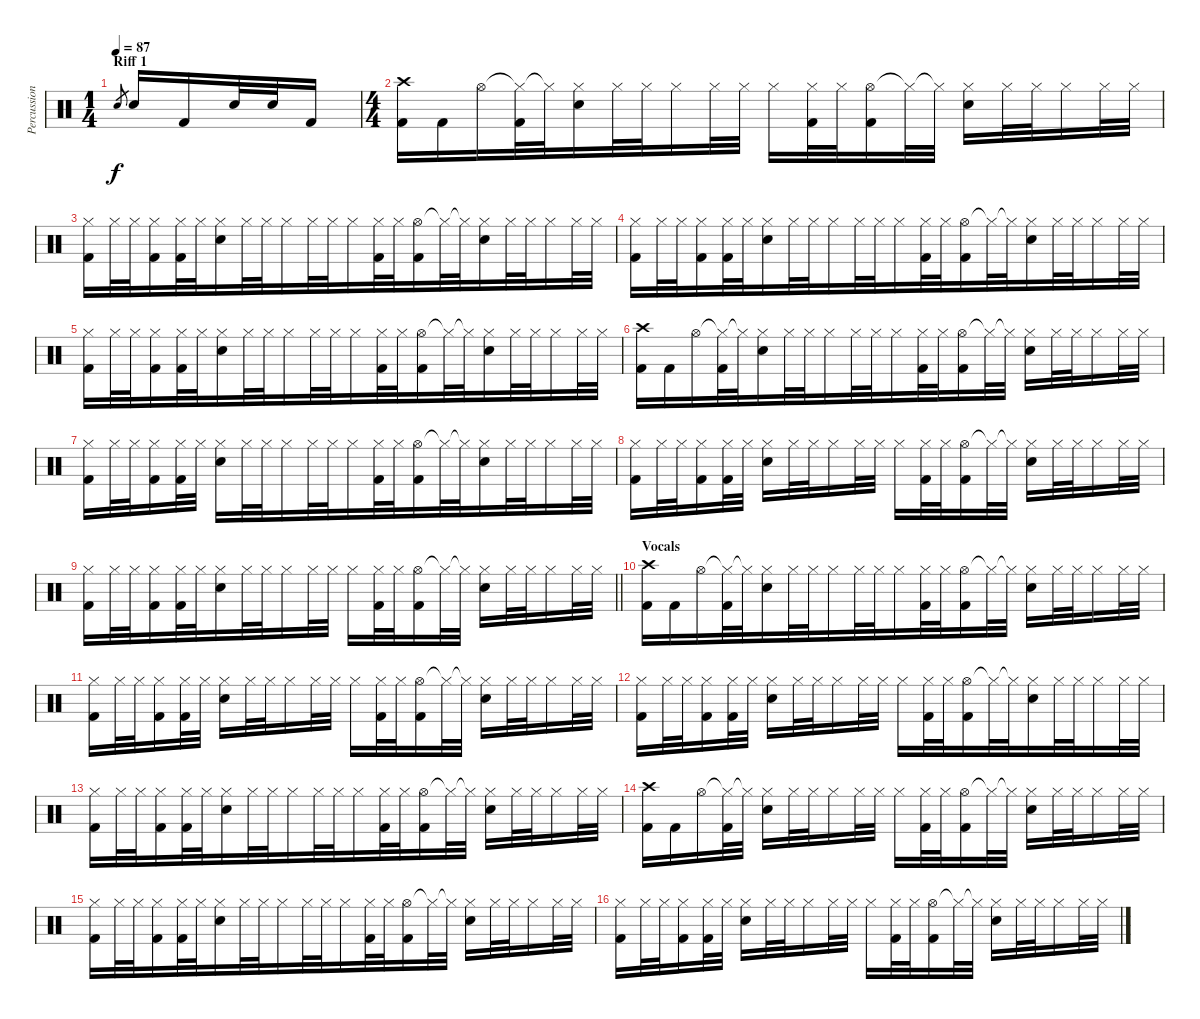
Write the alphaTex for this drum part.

\track ("Percussion" "Percussion") {instrument percussion}
\staff {score}
\articulation defaults
\ts (1 4)
\section ("" "Riff 1")
\tempo 87
\clef neutral
\ks c "Electric Snare (hit)".8{gr dy f beam merge} "Electric Snare (hit)".16 "Kick (hit) 2".16{beam merge} "Electric Snare (hit)".32{beam merge} "Electric Snare (hit)".32{beam merge} "Kick (hit) 2".16
|
\ts (4 4)
("Crash high (hit)" "Kick (hit) 2").16{beam merge} "Kick (hit) 2".16{beam merge} "Hi-Hat (open)".16{beam merge} ("Hi-Hat (closed)"{t} "Kick (hit) 2").32{beam merge} "Hi-Hat (closed)"{t}.32{beam merge} ("Hi-Hat (closed)" "Electric Snare (hit)").16{beam merge} "Hi-Hat (closed)".32{beam merge} "Hi-Hat (closed)".32{beam merge} "Hi-Hat (closed)".16{beam merge} "Hi-Hat (closed)".32{beam merge} "Hi-Hat (closed)".32 "Hi-Hat (closed)".16 ("Hi-Hat (closed)" "Kick (hit) 2").32 "Hi-Hat (closed)".32 ("Hi-Hat (open)" "Kick (hit) 2").16 "Hi-Hat (closed)"{t}.32 "Hi-Hat (closed)"{t}.32 ("Hi-Hat (closed)" "Electric Snare (hit)").16 "Hi-Hat (closed)".32 "Hi-Hat (closed)".32{beam merge} "Hi-Hat (closed)".16 "Hi-Hat (closed)".32 "Hi-Hat (closed)".32 |
("Hi-Hat (closed)" "Kick (hit) 2").16{beam merge} "Hi-Hat (closed)".32 "Hi-Hat (closed)".32{beam merge} ("Hi-Hat (closed)" "Kick (hit) 2").16{beam merge} ("Hi-Hat (closed)" "Kick (hit) 2").32 "Hi-Hat (closed)".32{beam merge} ("Hi-Hat (closed)" "Electric Snare (hit)").16 "Hi-Hat (closed)".32{beam merge} "Hi-Hat (closed)".32 "Hi-Hat (closed)".16{beam merge} "Hi-Hat (closed)".32{beam merge} "Hi-Hat (closed)".32{beam merge} "Hi-Hat (closed)".16{beam merge} ("Hi-Hat (closed)" "Kick (hit) 2").32{beam merge} "Hi-Hat (closed)".32{beam merge} ("Hi-Hat (open)" "Kick (hit) 2").16{beam merge} "Hi-Hat (closed)"{t}.32{beam merge} "Hi-Hat (closed)"{t}.32{beam merge} ("Hi-Hat (closed)" "Electric Snare (hit)").16{beam merge} "Hi-Hat (closed)".32{beam merge} "Hi-Hat (closed)".32{beam merge} "Hi-Hat (closed)".16 "Hi-Hat (closed)".32{beam merge} "Hi-Hat (closed)".32 |
("Hi-Hat (closed)" "Kick (hit) 2").16{beam merge} "Hi-Hat (closed)".32{beam merge} "Hi-Hat (closed)".32{beam merge} ("Hi-Hat (closed)" "Kick (hit) 2").16{beam merge} ("Hi-Hat (closed)" "Kick (hit) 2").32{beam merge} "Hi-Hat (closed)".32{beam merge} ("Hi-Hat (closed)" "Electric Snare (hit)").16{beam merge} "Hi-Hat (closed)".32{beam merge} "Hi-Hat (closed)".32{beam merge} "Hi-Hat (closed)".16{beam merge} "Hi-Hat (closed)".32{beam merge} "Hi-Hat (closed)".32{beam merge} "Hi-Hat (closed)".16{beam merge} ("Hi-Hat (closed)" "Kick (hit) 2").32 "Hi-Hat (closed)".32 ("Hi-Hat (open)" "Kick (hit) 2").16{beam merge} "Hi-Hat (closed)"{t}.32{beam merge} "Hi-Hat (closed)"{t}.32{beam merge} ("Hi-Hat (closed)" "Electric Snare (hit)").16{beam merge} "Hi-Hat (closed)".32{beam merge} "Hi-Hat (closed)".32{beam merge} "Hi-Hat (closed)".16{beam merge} "Hi-Hat (closed)".32{beam merge} "Hi-Hat (closed)".32 |
("Hi-Hat (closed)" "Kick (hit) 2").16{beam merge} "Hi-Hat (closed)".32{beam merge} "Hi-Hat (closed)".32 ("Hi-Hat (closed)" "Kick (hit) 2").16{beam merge} ("Hi-Hat (closed)" "Kick (hit) 2").32{beam merge} "Hi-Hat (closed)".32{beam merge} ("Hi-Hat (closed)" "Electric Snare (hit)").16{beam merge} "Hi-Hat (closed)".32{beam merge} "Hi-Hat (closed)".32 "Hi-Hat (closed)".16{beam merge} "Hi-Hat (closed)".32{beam merge} "Hi-Hat (closed)".32{beam merge} "Hi-Hat (closed)".16{beam merge} ("Hi-Hat (closed)" "Kick (hit) 2").32{beam merge} "Hi-Hat (closed)".32{beam merge} ("Hi-Hat (open)" "Kick (hit) 2").16{beam merge} "Hi-Hat (closed)"{t}.32{beam merge} "Hi-Hat (closed)"{t}.32{beam merge} ("Hi-Hat (closed)" "Electric Snare (hit)").16{beam merge} "Hi-Hat (closed)".32 "Hi-Hat (closed)".32{beam merge} "Hi-Hat (closed)".16{beam merge} "Hi-Hat (closed)".32{beam merge} "Hi-Hat (closed)".32 |
("Crash high (hit)" "Kick (hit) 2").16 "Kick (hit) 2".16{beam merge} "Hi-Hat (open)".16{beam merge} ("Hi-Hat (closed)"{t} "Kick (hit) 2").32 "Hi-Hat (closed)"{t}.32{beam merge} ("Hi-Hat (closed)" "Electric Snare (hit)").16{beam merge} "Hi-Hat (closed)".32{beam merge} "Hi-Hat (closed)".32{beam merge} "Hi-Hat (closed)".16 "Hi-Hat (closed)".32{beam merge} "Hi-Hat (closed)".32{beam merge} "Hi-Hat (closed)".16{beam merge} ("Hi-Hat (closed)" "Kick (hit) 2").32{beam merge} "Hi-Hat (closed)".32{beam merge} ("Hi-Hat (open)" "Kick (hit) 2").16{beam merge} "Hi-Hat (closed)"{t}.32{beam merge} "Hi-Hat (closed)"{t}.32 ("Hi-Hat (closed)" "Electric Snare (hit)").16 "Hi-Hat (closed)".32{beam merge} "Hi-Hat (closed)".32 "Hi-Hat (closed)".16 "Hi-Hat (closed)".32{beam merge} "Hi-Hat (closed)".32 |
("Hi-Hat (closed)" "Kick (hit) 2").16{beam merge} "Hi-Hat (closed)".32{beam merge} "Hi-Hat (closed)".32{beam merge} ("Hi-Hat (closed)" "Kick (hit) 2").16{beam merge} ("Hi-Hat (closed)" "Kick (hit) 2").32{beam merge} "Hi-Hat (closed)".32 ("Hi-Hat (closed)" "Electric Snare (hit)").16{beam merge} "Hi-Hat (closed)".32{beam merge} "Hi-Hat (closed)".32{beam merge} "Hi-Hat (closed)".16{beam merge} "Hi-Hat (closed)".32{beam merge} "Hi-Hat (closed)".32{beam merge} "Hi-Hat (closed)".16{beam merge} ("Hi-Hat (closed)" "Kick (hit) 2").32{beam merge} "Hi-Hat (closed)".32{beam merge} ("Hi-Hat (open)" "Kick (hit) 2").16{beam merge} "Hi-Hat (closed)"{t}.32{beam merge} "Hi-Hat (closed)"{t}.32{beam merge} ("Hi-Hat (closed)" "Electric Snare (hit)").16{beam merge} "Hi-Hat (closed)".32{beam merge} "Hi-Hat (closed)".32{beam merge} "Hi-Hat (closed)".16{beam merge} "Hi-Hat (closed)".32{beam merge} "Hi-Hat (closed)".32 |
("Hi-Hat (closed)" "Kick (hit) 2").16 "Hi-Hat (closed)".32{beam merge} "Hi-Hat (closed)".32{beam merge} ("Hi-Hat (closed)" "Kick (hit) 2").16 ("Hi-Hat (closed)" "Kick (hit) 2").32{beam merge} "Hi-Hat (closed)".32 ("Hi-Hat (closed)" "Electric Snare (hit)").16{beam merge} "Hi-Hat (closed)".32{beam merge} "Hi-Hat (closed)".32 "Hi-Hat (closed)".16{beam merge} "Hi-Hat (closed)".32 "Hi-Hat (closed)".32 "Hi-Hat (closed)".16 ("Hi-Hat (closed)" "Kick (hit) 2").32{beam merge} "Hi-Hat (closed)".32{beam merge} ("Hi-Hat (open)" "Kick (hit) 2").16 "Hi-Hat (closed)"{t}.32 "Hi-Hat (closed)"{t}.32 ("Hi-Hat (closed)" "Electric Snare (hit)").16{beam merge} "Hi-Hat (closed)".32{beam merge} "Hi-Hat (closed)".32 "Hi-Hat (closed)".16 "Hi-Hat (closed)".32 "Hi-Hat (closed)".32 |
\barLineRight lightlight
("Hi-Hat (closed)" "Kick (hit) 2").16 "Hi-Hat (closed)".32{beam merge} "Hi-Hat (closed)".32{beam merge} ("Hi-Hat (closed)" "Kick (hit) 2").16{beam merge} ("Hi-Hat (closed)" "Kick (hit) 2").32 "Hi-Hat (closed)".32{beam merge} ("Hi-Hat (closed)" "Electric Snare (hit)").16 "Hi-Hat (closed)".32 "Hi-Hat (closed)".32{beam merge} "Hi-Hat (closed)".16 "Hi-Hat (closed)".32{beam merge} "Hi-Hat (closed)".32 "Hi-Hat (closed)".16{beam merge} ("Hi-Hat (closed)" "Kick (hit) 2").32{beam merge} "Hi-Hat (closed)".32{beam merge} ("Hi-Hat (open)" "Kick (hit) 2").16{beam merge} "Hi-Hat (closed)"{t}.32 "Hi-Hat (closed)"{t}.32 ("Hi-Hat (closed)" "Electric Snare (hit)").16 "Hi-Hat (closed)".32 "Hi-Hat (closed)".32 "Hi-Hat (closed)".16{beam merge} "Hi-Hat (closed)".32{beam merge} "Hi-Hat (closed)".32 |
\section ("" "Vocals ")
("Crash high (hit)" "Kick (hit) 2").16 "Kick (hit) 2".16 "Hi-Hat (open)".16 ("Hi-Hat (closed)"{t} "Kick (hit) 2").32{beam merge} "Hi-Hat (closed)"{t}.32{beam merge} ("Hi-Hat (closed)" "Electric Snare (hit)").16 "Hi-Hat (closed)".32 "Hi-Hat (closed)".32 "Hi-Hat (closed)".16 "Hi-Hat (closed)".32{beam merge} "Hi-Hat (closed)".32{beam merge} "Hi-Hat (closed)".16 ("Hi-Hat (closed)" "Kick (hit) 2").32{beam merge} "Hi-Hat (closed)".32{beam merge} ("Hi-Hat (open)" "Kick (hit) 2").16{beam merge} "Hi-Hat (closed)"{t}.32{beam merge} "Hi-Hat (closed)"{t}.32 ("Hi-Hat (closed)" "Electric Snare (hit)").16 "Hi-Hat (closed)".32 "Hi-Hat (closed)".32{beam merge} "Hi-Hat (closed)".16{beam merge} "Hi-Hat (closed)".32{beam merge} "Hi-Hat (closed)".32 |
("Hi-Hat (closed)" "Kick (hit) 2").16 "Hi-Hat (closed)".32 "Hi-Hat (closed)".32{beam merge} ("Hi-Hat (closed)" "Kick (hit) 2").16 ("Hi-Hat (closed)" "Kick (hit) 2").32 "Hi-Hat (closed)".32 ("Hi-Hat (closed)" "Electric Snare (hit)").16 "Hi-Hat (closed)".32 "Hi-Hat (closed)".32 "Hi-Hat (closed)".16 "Hi-Hat (closed)".32 "Hi-Hat (closed)".32 "Hi-Hat (closed)".16 ("Hi-Hat (closed)" "Kick (hit) 2").32 "Hi-Hat (closed)".32 ("Hi-Hat (open)" "Kick (hit) 2").16 "Hi-Hat (closed)"{t}.32 "Hi-Hat (closed)"{t}.32 ("Hi-Hat (closed)" "Electric Snare (hit)").16{beam merge} "Hi-Hat (closed)".32 "Hi-Hat (closed)".32 "Hi-Hat (closed)".16 "Hi-Hat (closed)".32 "Hi-Hat (closed)".32 |
("Hi-Hat (closed)" "Kick (hit) 2").16 "Hi-Hat (closed)".32{beam merge} "Hi-Hat (closed)".32 ("Hi-Hat (closed)" "Kick (hit) 2").16 ("Hi-Hat (closed)" "Kick (hit) 2").32 "Hi-Hat (closed)".32 ("Hi-Hat (closed)" "Electric Snare (hit)").16{beam merge} "Hi-Hat (closed)".32 "Hi-Hat (closed)".32 "Hi-Hat (closed)".16 "Hi-Hat (closed)".32{beam merge} "Hi-Hat (closed)".32 "Hi-Hat (closed)".16 ("Hi-Hat (closed)" "Kick (hit) 2").32 "Hi-Hat (closed)".32{beam merge} ("Hi-Hat (open)" "Kick (hit) 2").16 "Hi-Hat (closed)"{t}.32 "Hi-Hat (closed)"{t}.32{beam merge} ("Hi-Hat (closed)" "Electric Snare (hit)").16 "Hi-Hat (closed)".32 "Hi-Hat (closed)".32 "Hi-Hat (closed)".16 "Hi-Hat (closed)".32 "Hi-Hat (closed)".32 |
("Hi-Hat (closed)" "Kick (hit) 2").16 "Hi-Hat (closed)".32 "Hi-Hat (closed)".32 ("Hi-Hat (closed)" "Kick (hit) 2").16 ("Hi-Hat (closed)" "Kick (hit) 2").32 "Hi-Hat (closed)".32{beam merge} ("Hi-Hat (closed)" "Electric Snare (hit)").16 "Hi-Hat (closed)".32 "Hi-Hat (closed)".32 "Hi-Hat (closed)".16 "Hi-Hat (closed)".32 "Hi-Hat (closed)".32{beam merge} "Hi-Hat (closed)".16 ("Hi-Hat (closed)" "Kick (hit) 2").32 "Hi-Hat (closed)".32{beam merge} ("Hi-Hat (open)" "Kick (hit) 2").16 "Hi-Hat (closed)"{t}.32 "Hi-Hat (closed)"{t}.32 ("Hi-Hat (closed)" "Electric Snare (hit)").16{beam merge} "Hi-Hat (closed)".32 "Hi-Hat (closed)".32 "Hi-Hat (closed)".16{beam merge} "Hi-Hat (closed)".32 "Hi-Hat (closed)".32 |
("Crash high (hit)" "Kick (hit) 2").16 "Kick (hit) 2".16{beam merge} "Hi-Hat (open)".16 ("Hi-Hat (closed)"{t} "Kick (hit) 2").32{beam merge} "Hi-Hat (closed)"{t}.32 ("Hi-Hat (closed)" "Electric Snare (hit)").16 "Hi-Hat (closed)".32{beam merge} "Hi-Hat (closed)".32 "Hi-Hat (closed)".16 "Hi-Hat (closed)".32 "Hi-Hat (closed)".32 "Hi-Hat (closed)".16{beam merge} ("Hi-Hat (closed)" "Kick (hit) 2").32 "Hi-Hat (closed)".32{beam merge} ("Hi-Hat (open)" "Kick (hit) 2").16 "Hi-Hat (closed)"{t}.32 "Hi-Hat (closed)"{t}.32 ("Hi-Hat (closed)" "Electric Snare (hit)").16 "Hi-Hat (closed)".32 "Hi-Hat (closed)".32{beam merge} "Hi-Hat (closed)".16{beam merge} "Hi-Hat (closed)".32 "Hi-Hat (closed)".32 |
("Hi-Hat (closed)" "Kick (hit) 2").16{beam merge} "Hi-Hat (closed)".32 "Hi-Hat (closed)".32{beam merge} ("Hi-Hat (closed)" "Kick (hit) 2").16 ("Hi-Hat (closed)" "Kick (hit) 2").32 "Hi-Hat (closed)".32{beam merge} ("Hi-Hat (closed)" "Electric Snare (hit)").16{beam merge} "Hi-Hat (closed)".32 "Hi-Hat (closed)".32{beam merge} "Hi-Hat (closed)".16{beam merge} "Hi-Hat (closed)".32 "Hi-Hat (closed)".32{beam merge} "Hi-Hat (closed)".16 ("Hi-Hat (closed)" "Kick (hit) 2").32 "Hi-Hat (closed)".32{beam merge} ("Hi-Hat (open)" "Kick (hit) 2").16 "Hi-Hat (closed)"{t}.32 "Hi-Hat (closed)"{t}.32 ("Hi-Hat (closed)" "Electric Snare (hit)").16{beam merge} "Hi-Hat (closed)".32 "Hi-Hat (closed)".32{beam merge} "Hi-Hat (closed)".16 "Hi-Hat (closed)".32 "Hi-Hat (closed)".32 |
("Hi-Hat (closed)" "Kick (hit) 2").16{beam merge} "Hi-Hat (closed)".32{beam merge} "Hi-Hat (closed)".32 ("Hi-Hat (closed)" "Kick (hit) 2").16{beam merge} ("Hi-Hat (closed)" "Kick (hit) 2").32 "Hi-Hat (closed)".32 ("Hi-Hat (closed)" "Electric Snare (hit)").16{beam merge} "Hi-Hat (closed)".32 "Hi-Hat (closed)".32 "Hi-Hat (closed)".16 "Hi-Hat (closed)".32 "Hi-Hat (closed)".32 "Hi-Hat (closed)".16{beam merge} ("Hi-Hat (closed)" "Kick (hit) 2").32 "Hi-Hat (closed)".32 ("Hi-Hat (open)" "Kick (hit) 2").16 "Hi-Hat (closed)"{t}.32 "Hi-Hat (closed)"{t}.32 ("Hi-Hat (closed)" "Electric Snare (hit)").16{beam merge} "Hi-Hat (closed)".32{beam merge} "Hi-Hat (closed)".32 "Hi-Hat (closed)".16 "Hi-Hat (closed)".32 "Hi-Hat (closed)".32
